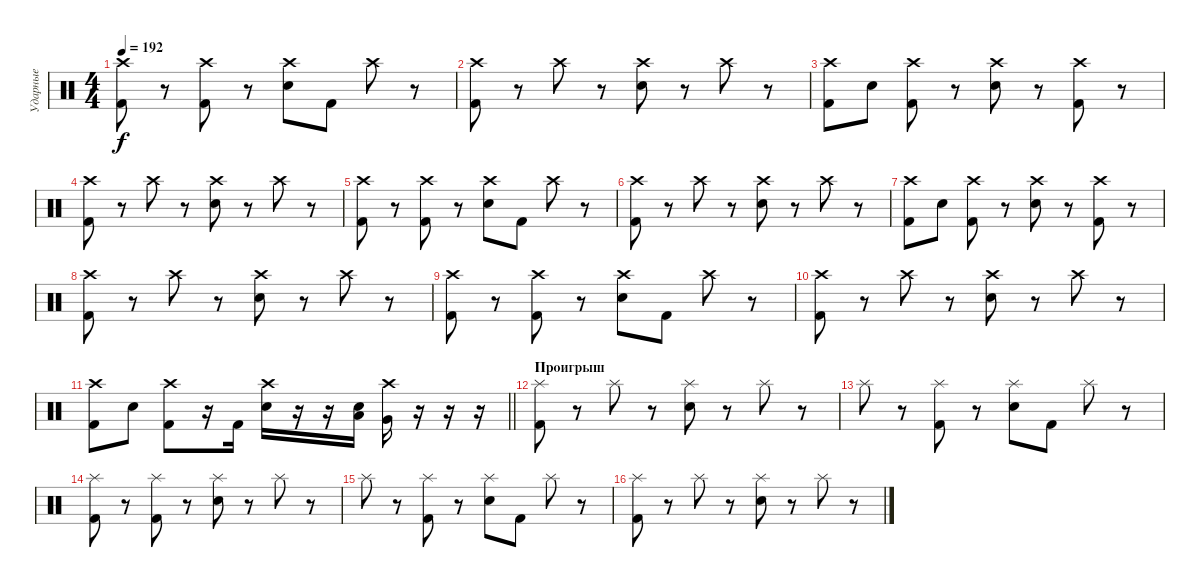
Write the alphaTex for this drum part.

\track ("Ударные" "Ударные") {instrument percussion}
\staff {score}
\articulation defaults
\ts (4 4)
\tempo 192
\clef neutral
\ks c
("Kick (hit) 2" "Crash high (hit)").8{dy f} r.8 ("Kick (hit) 2" "Crash high (hit)").8 r.8 ("Snare (hit) 2" "Crash high (hit)").8 "Kick (hit) 2".8 "Crash high (hit)".8 r.8 |
("Kick (hit) 2" "Crash high (hit)").8 r.8 "Crash high (hit)".8 r.8 ("Snare (hit) 2" "Crash high (hit)").8 r.8 "Crash high (hit)".8 r.8 |
("Kick (hit) 2" "Crash high (hit)").8 "Snare (hit) 2".8 ("Kick (hit) 2" "Crash high (hit)").8 r.8 ("Snare (hit) 2" "Crash high (hit)").8 r.8 ("Crash high (hit)" "Kick (hit) 2").8 r.8 |
("Kick (hit) 2" "Crash high (hit)").8 r.8 "Crash high (hit)".8 r.8 ("Snare (hit) 2" "Crash high (hit)").8 r.8 "Crash high (hit)".8 r.8 |
("Kick (hit) 2" "Crash high (hit)").8 r.8 ("Kick (hit) 2" "Crash high (hit)").8 r.8 ("Snare (hit) 2" "Crash high (hit)").8 "Kick (hit) 2".8 "Crash high (hit)".8 r.8 |
("Kick (hit) 2" "Crash high (hit)").8 r.8 "Crash high (hit)".8 r.8 ("Snare (hit) 2" "Crash high (hit)").8 r.8 "Crash high (hit)".8 r.8 |
("Kick (hit) 2" "Crash high (hit)").8 "Snare (hit) 2".8 ("Kick (hit) 2" "Crash high (hit)").8 r.8 ("Snare (hit) 2" "Crash high (hit)").8 r.8 ("Crash high (hit)" "Kick (hit) 2").8 r.8 |
("Kick (hit) 2" "Crash high (hit)").8 r.8 "Crash high (hit)".8 r.8 ("Snare (hit) 2" "Crash high (hit)").8 r.8 "Crash high (hit)".8 r.8 |
("Kick (hit) 2" "Crash high (hit)").8 r.8 ("Kick (hit) 2" "Crash high (hit)").8 r.8 ("Snare (hit) 2" "Crash high (hit)").8 "Kick (hit) 2".8 "Crash high (hit)".8 r.8 |
("Kick (hit) 2" "Crash high (hit)").8 r.8 "Crash high (hit)".8 r.8 ("Snare (hit) 2" "Crash high (hit)").8 r.8 "Crash high (hit)".8 r.8 |
\barLineRight lightlight
("Kick (hit) 2" "Crash high (hit)").8 "Snare (hit) 2".8 ("Kick (hit) 2" "Crash high (hit)").8 r.16 "Kick (hit) 2".16 ("Snare (hit) 2" "Crash high (hit)").16 r.16 r.16 ("Snare (hit) 2" "Low Tom (hit)").16 ("Very Low Tom (hit)" "Crash high (hit)").16 r.16 r.16 r.16 |
\section ("" "Проигрыш")
("Kick (hit) 2" "Splash (hit)").8 r.8 "Splash (hit)".8 r.8 ("Snare (hit) 2" "Splash (hit)").8 r.8 "Splash (hit)".8 r.8 |
"Splash (hit)".8 r.8 ("Kick (hit) 2" "Splash (hit)").8 r.8 ("Snare (hit) 2" "Splash (hit)").8 "Kick (hit) 2".8 "Splash (hit)".8 r.8 |
("Kick (hit) 2" "Splash (hit)").8 r.8 ("Kick (hit) 2" "Splash (hit)").8 r.8 ("Snare (hit) 2" "Splash (hit)").8 r.8 "Splash (hit)".8 r.8 |
"Splash (hit)".8 r.8 ("Kick (hit) 2" "Splash (hit)").8 r.8 ("Snare (hit) 2" "Splash (hit)").8 "Kick (hit) 2".8 "Splash (hit)".8 r.8 |
("Kick (hit) 2" "Splash (hit)").8 r.8 "Splash (hit)".8 r.8 ("Snare (hit) 2" "Splash (hit)").8 r.8 "Splash (hit)".8 r.8
